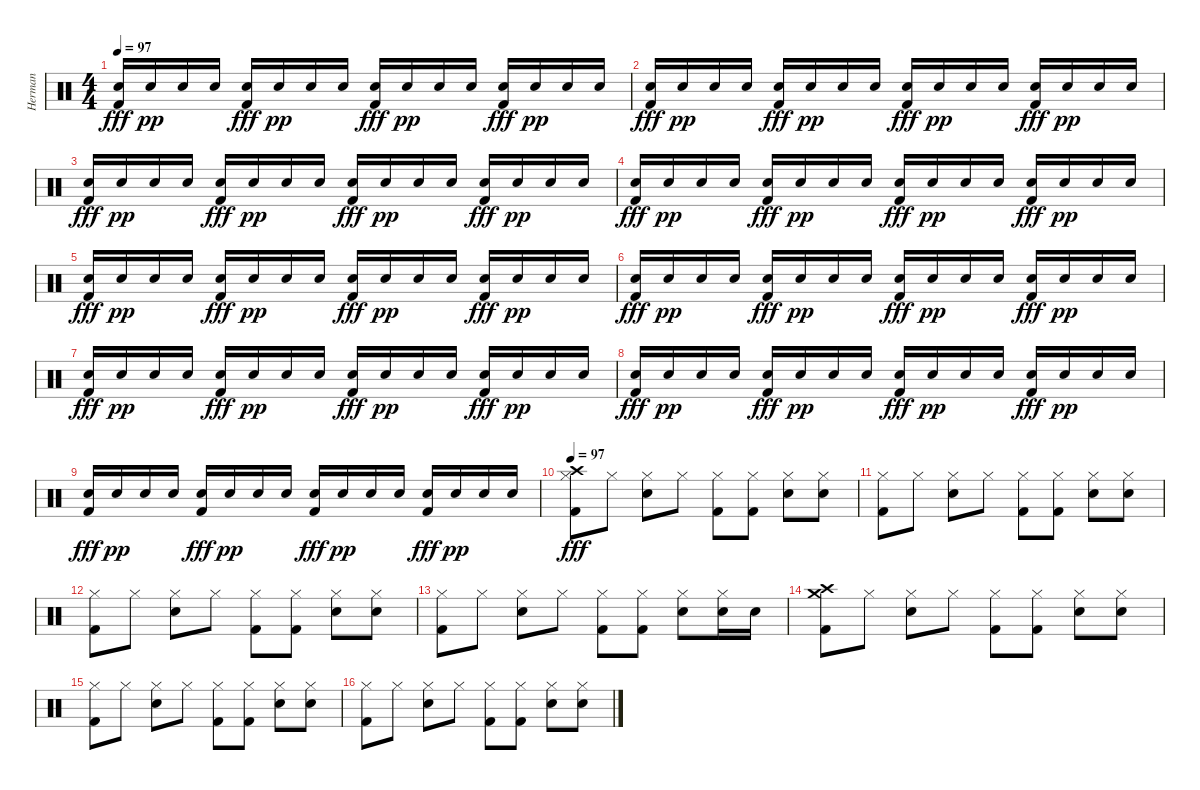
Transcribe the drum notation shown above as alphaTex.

\track ("Herman" "Herman") {instrument percussion}
\staff {score}
\articulation defaults
\ts (4 4)
\tempo 97
\clef neutral
\ks c
("Snare (hit) 2" "Kick (hit) 2").16{dy fff} "Snare (hit) 2".16{dy pp} "Snare (hit) 2".16 "Snare (hit) 2".16 ("Snare (hit) 2" "Kick (hit) 2").16{dy fff} "Snare (hit) 2".16{dy pp} "Snare (hit) 2".16 "Snare (hit) 2".16 ("Snare (hit) 2" "Kick (hit) 2").16{dy fff} "Snare (hit) 2".16{dy pp} "Snare (hit) 2".16 "Snare (hit) 2".16 ("Snare (hit) 2" "Kick (hit) 2").16{dy fff} "Snare (hit) 2".16{dy pp} "Snare (hit) 2".16 "Snare (hit) 2".16 |
("Snare (hit) 2" "Kick (hit) 2").16{dy fff} "Snare (hit) 2".16{dy pp} "Snare (hit) 2".16 "Snare (hit) 2".16 ("Snare (hit) 2" "Kick (hit) 2").16{dy fff} "Snare (hit) 2".16{dy pp} "Snare (hit) 2".16 "Snare (hit) 2".16 ("Snare (hit) 2" "Kick (hit) 2").16{dy fff} "Snare (hit) 2".16{dy pp} "Snare (hit) 2".16 "Snare (hit) 2".16 ("Snare (hit) 2" "Kick (hit) 2").16{dy fff} "Snare (hit) 2".16{dy pp} "Snare (hit) 2".16 "Snare (hit) 2".16 |
("Snare (hit) 2" "Kick (hit) 2").16{dy fff} "Snare (hit) 2".16{dy pp} "Snare (hit) 2".16 "Snare (hit) 2".16 ("Snare (hit) 2" "Kick (hit) 2").16{dy fff} "Snare (hit) 2".16{dy pp} "Snare (hit) 2".16 "Snare (hit) 2".16 ("Snare (hit) 2" "Kick (hit) 2").16{dy fff} "Snare (hit) 2".16{dy pp} "Snare (hit) 2".16 "Snare (hit) 2".16 ("Snare (hit) 2" "Kick (hit) 2").16{dy fff} "Snare (hit) 2".16{dy pp} "Snare (hit) 2".16 "Snare (hit) 2".16 |
("Snare (hit) 2" "Kick (hit) 2").16{dy fff} "Snare (hit) 2".16{dy pp} "Snare (hit) 2".16 "Snare (hit) 2".16 ("Snare (hit) 2" "Kick (hit) 2").16{dy fff} "Snare (hit) 2".16{dy pp} "Snare (hit) 2".16 "Snare (hit) 2".16 ("Snare (hit) 2" "Kick (hit) 2").16{dy fff} "Snare (hit) 2".16{dy pp} "Snare (hit) 2".16 "Snare (hit) 2".16 ("Snare (hit) 2" "Kick (hit) 2").16{dy fff} "Snare (hit) 2".16{dy pp} "Snare (hit) 2".16 "Snare (hit) 2".16 |
("Snare (hit) 2" "Kick (hit) 2").16{dy fff} "Snare (hit) 2".16{dy pp} "Snare (hit) 2".16 "Snare (hit) 2".16 ("Snare (hit) 2" "Kick (hit) 2").16{dy fff} "Snare (hit) 2".16{dy pp} "Snare (hit) 2".16 "Snare (hit) 2".16 ("Snare (hit) 2" "Kick (hit) 2").16{dy fff} "Snare (hit) 2".16{dy pp} "Snare (hit) 2".16 "Snare (hit) 2".16 ("Snare (hit) 2" "Kick (hit) 2").16{dy fff} "Snare (hit) 2".16{dy pp} "Snare (hit) 2".16 "Snare (hit) 2".16 |
("Snare (hit) 2" "Kick (hit) 2").16{dy fff} "Snare (hit) 2".16{dy pp} "Snare (hit) 2".16 "Snare (hit) 2".16 ("Snare (hit) 2" "Kick (hit) 2").16{dy fff} "Snare (hit) 2".16{dy pp} "Snare (hit) 2".16 "Snare (hit) 2".16 ("Snare (hit) 2" "Kick (hit) 2").16{dy fff} "Snare (hit) 2".16{dy pp} "Snare (hit) 2".16 "Snare (hit) 2".16 ("Snare (hit) 2" "Kick (hit) 2").16{dy fff} "Snare (hit) 2".16{dy pp} "Snare (hit) 2".16 "Snare (hit) 2".16 |
("Snare (hit) 2" "Kick (hit) 2").16{dy fff} "Snare (hit) 2".16{dy pp} "Snare (hit) 2".16 "Snare (hit) 2".16 ("Snare (hit) 2" "Kick (hit) 2").16{dy fff} "Snare (hit) 2".16{dy pp} "Snare (hit) 2".16 "Snare (hit) 2".16 ("Snare (hit) 2" "Kick (hit) 2").16{dy fff} "Snare (hit) 2".16{dy pp} "Snare (hit) 2".16 "Snare (hit) 2".16 ("Snare (hit) 2" "Kick (hit) 2").16{dy fff} "Snare (hit) 2".16{dy pp} "Snare (hit) 2".16 "Snare (hit) 2".16 |
("Snare (hit) 2" "Kick (hit) 2").16{dy fff} "Snare (hit) 2".16{dy pp} "Snare (hit) 2".16 "Snare (hit) 2".16 ("Snare (hit) 2" "Kick (hit) 2").16{dy fff} "Snare (hit) 2".16{dy pp} "Snare (hit) 2".16 "Snare (hit) 2".16 ("Snare (hit) 2" "Kick (hit) 2").16{dy fff} "Snare (hit) 2".16{dy pp} "Snare (hit) 2".16 "Snare (hit) 2".16 ("Snare (hit) 2" "Kick (hit) 2").16{dy fff} "Snare (hit) 2".16{dy pp} "Snare (hit) 2".16 "Snare (hit) 2".16 |
("Snare (hit) 2" "Kick (hit) 2").16{dy fff} "Snare (hit) 2".16{dy pp} "Snare (hit) 2".16 "Snare (hit) 2".16 ("Snare (hit) 2" "Kick (hit) 2").16{dy fff} "Snare (hit) 2".16{dy pp} "Snare (hit) 2".16 "Snare (hit) 2".16 ("Snare (hit) 2" "Kick (hit) 2").16{dy fff} "Snare (hit) 2".16{dy pp} "Snare (hit) 2".16 "Snare (hit) 2".16 ("Snare (hit) 2" "Kick (hit) 2").16{dy fff} "Snare (hit) 2".16{dy pp} "Snare (hit) 2".16 "Snare (hit) 2".16 |
\tempo 97
("Crash high (hit)" "Hi-Hat (closed)" "Kick (hit) 2").8{dy fff} "Hi-Hat (closed)".8 ("Hi-Hat (closed)" "Snare (hit) 2").8 "Hi-Hat (closed)".8 ("Hi-Hat (closed)" "Kick (hit) 2").8 ("Hi-Hat (closed)" "Kick (hit) 2").8 ("Hi-Hat (closed)" "Snare (hit) 2").8 ("Hi-Hat (closed)" "Snare (hit) 2").8 |
("Hi-Hat (closed)" "Kick (hit) 2").8 "Hi-Hat (closed)".8 ("Hi-Hat (closed)" "Snare (hit) 2").8 "Hi-Hat (closed)".8 ("Hi-Hat (closed)" "Kick (hit) 2").8 ("Hi-Hat (closed)" "Kick (hit) 2").8 ("Hi-Hat (closed)" "Snare (hit) 2").8 ("Hi-Hat (closed)" "Snare (hit) 2").8 |
("Hi-Hat (closed)" "Kick (hit) 2").8 "Hi-Hat (closed)".8 ("Hi-Hat (closed)" "Snare (hit) 2").8 "Hi-Hat (closed)".8 ("Hi-Hat (closed)" "Kick (hit) 2").8 ("Hi-Hat (closed)" "Kick (hit) 2").8 ("Hi-Hat (closed)" "Snare (hit) 2").8 ("Hi-Hat (closed)" "Snare (hit) 2").8 |
("Hi-Hat (closed)" "Kick (hit) 2").8 "Hi-Hat (closed)".8 ("Hi-Hat (closed)" "Snare (hit) 2").8 "Hi-Hat (closed)".8 ("Hi-Hat (closed)" "Kick (hit) 2").8 ("Hi-Hat (closed)" "Kick (hit) 2").8 ("Hi-Hat (closed)" "Snare (hit) 2").8 ("Hi-Hat (closed)" "Snare (hit) 2").16 "Snare (hit) 2".16 |
("Crash high (hit)" "Crash medium (hit)" "Kick (hit) 2").8 "Hi-Hat (closed)".8 ("Hi-Hat (closed)" "Snare (hit) 2").8 "Hi-Hat (closed)".8 ("Hi-Hat (closed)" "Kick (hit) 2").8 ("Hi-Hat (closed)" "Kick (hit) 2").8 ("Hi-Hat (closed)" "Snare (hit) 2").8 ("Hi-Hat (closed)" "Snare (hit) 2").8 |
("Hi-Hat (closed)" "Kick (hit) 2").8 "Hi-Hat (closed)".8 ("Hi-Hat (closed)" "Snare (hit) 2").8 "Hi-Hat (closed)".8 ("Hi-Hat (closed)" "Kick (hit) 2").8 ("Hi-Hat (closed)" "Kick (hit) 2").8 ("Hi-Hat (closed)" "Snare (hit) 2").8 ("Hi-Hat (closed)" "Snare (hit) 2").8 |
("Hi-Hat (closed)" "Kick (hit) 2").8 "Hi-Hat (closed)".8 ("Hi-Hat (closed)" "Snare (hit) 2").8 "Hi-Hat (closed)".8 ("Hi-Hat (closed)" "Kick (hit) 2").8 ("Hi-Hat (closed)" "Kick (hit) 2").8 ("Hi-Hat (closed)" "Snare (hit) 2").8 ("Hi-Hat (closed)" "Snare (hit) 2").8
